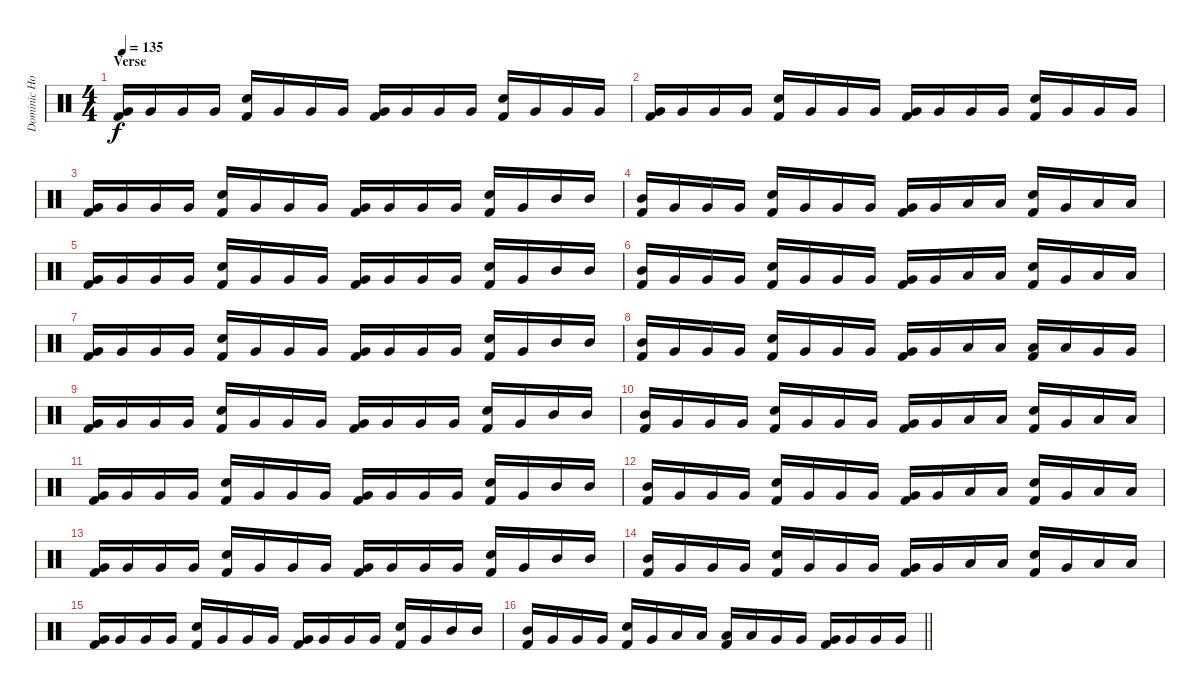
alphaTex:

\track ("Dominic Howard (Drums)" "Dominic Ho") {instrument percussion}
\staff {score}
\articulation defaults
\ts (4 4)
\section ("" "Verse")
\tempo 135
\clef neutral
\ks c
("Kick (hit) 2" "Very Low Tom (hit)").16{dy f} "Very Low Tom (hit)".16 "Very Low Tom (hit)".16 "Very Low Tom (hit)".16 ("Electric Snare (hit)" "Kick (hit) 2").16 "Very Low Tom (hit)".16 "Very Low Tom (hit)".16 "Very Low Tom (hit)".16 ("Kick (hit) 2" "Very Low Tom (hit)").16 "Very Low Tom (hit)".16 "Very Low Tom (hit)".16 "Very Low Tom (hit)".16 ("Electric Snare (hit)" "Kick (hit) 2").16 "Very Low Tom (hit)".16 "Very Low Tom (hit)".16 "Very Low Tom (hit)".16 |
("Kick (hit) 2" "Very Low Tom (hit)").16 "Very Low Tom (hit)".16 "Very Low Tom (hit)".16 "Very Low Tom (hit)".16 ("Electric Snare (hit)" "Kick (hit) 2").16 "Very Low Tom (hit)".16 "Very Low Tom (hit)".16 "Very Low Tom (hit)".16 ("Kick (hit) 2" "Very Low Tom (hit)").16 "Very Low Tom (hit)".16 "Very Low Tom (hit)".16 "Very Low Tom (hit)".16 ("Electric Snare (hit)" "Kick (hit) 2").16 "Very Low Tom (hit)".16 "Very Low Tom (hit)".16 "Very Low Tom (hit)".16 |
("Kick (hit) 2" "Very Low Tom (hit)").16 "Very Low Tom (hit)".16 "Very Low Tom (hit)".16 "Very Low Tom (hit)".16 ("Electric Snare (hit)" "Kick (hit) 2").16 "Very Low Tom (hit)".16 "Very Low Tom (hit)".16 "Very Low Tom (hit)".16 ("Kick (hit) 2" "Very Low Tom (hit)").16 "Very Low Tom (hit)".16 "Very Low Tom (hit)".16 "Very Low Tom (hit)".16 ("Electric Snare (hit)" "Kick (hit) 2").16 "Very Low Tom (hit)".16 "Mid Tom (hit)".16 "Mid Tom (hit)".16 |
("Kick (hit) 2" "Mid Tom (hit)").16 "Very Low Tom (hit)".16 "Very Low Tom (hit)".16 "Very Low Tom (hit)".16 ("Electric Snare (hit)" "Kick (hit) 2").16 "Very Low Tom (hit)".16 "Very Low Tom (hit)".16 "Very Low Tom (hit)".16 ("Kick (hit) 2" "Very Low Tom (hit)").16 "Very Low Tom (hit)".16 "Low Tom (hit)".16 "Low Tom (hit)".16 ("Electric Snare (hit)" "Kick (hit) 2").16 "Very Low Tom (hit)".16 "Low Tom (hit)".16 "Low Tom (hit)".16 |
("Kick (hit) 2" "Very Low Tom (hit)").16 "Very Low Tom (hit)".16 "Very Low Tom (hit)".16 "Very Low Tom (hit)".16 ("Electric Snare (hit)" "Kick (hit) 2").16 "Very Low Tom (hit)".16 "Very Low Tom (hit)".16 "Very Low Tom (hit)".16 ("Kick (hit) 2" "Very Low Tom (hit)").16 "Very Low Tom (hit)".16 "Very Low Tom (hit)".16 "Very Low Tom (hit)".16 ("Electric Snare (hit)" "Kick (hit) 2").16 "Very Low Tom (hit)".16 "Mid Tom (hit)".16 "Mid Tom (hit)".16 |
("Kick (hit) 2" "Mid Tom (hit)").16 "Very Low Tom (hit)".16 "Very Low Tom (hit)".16 "Very Low Tom (hit)".16 ("Electric Snare (hit)" "Kick (hit) 2").16 "Very Low Tom (hit)".16 "Very Low Tom (hit)".16 "Very Low Tom (hit)".16 ("Kick (hit) 2" "Very Low Tom (hit)").16 "Very Low Tom (hit)".16 "Low Tom (hit)".16 "Low Tom (hit)".16 ("Electric Snare (hit)" "Kick (hit) 2").16 "Very Low Tom (hit)".16 "Low Tom (hit)".16 "Low Tom (hit)".16 |
("Kick (hit) 2" "Very Low Tom (hit)").16 "Very Low Tom (hit)".16 "Very Low Tom (hit)".16 "Very Low Tom (hit)".16 ("Electric Snare (hit)" "Kick (hit) 2").16 "Very Low Tom (hit)".16 "Very Low Tom (hit)".16 "Very Low Tom (hit)".16 ("Kick (hit) 2" "Very Low Tom (hit)").16 "Very Low Tom (hit)".16 "Very Low Tom (hit)".16 "Very Low Tom (hit)".16 ("Electric Snare (hit)" "Kick (hit) 2").16 "Very Low Tom (hit)".16 "Mid Tom (hit)".16 "Mid Tom (hit)".16 |
("Kick (hit) 2" "Mid Tom (hit)").16 "Very Low Tom (hit)".16 "Very Low Tom (hit)".16 "Very Low Tom (hit)".16 ("Electric Snare (hit)" "Kick (hit) 2").16 "Very Low Tom (hit)".16 "Very Low Tom (hit)".16 "Very Low Tom (hit)".16 ("Kick (hit) 2" "Very Low Tom (hit)").16 "Very Low Tom (hit)".16 "Low Tom (hit)".16 "Low Tom (hit)".16 ("Kick (hit) 2" "Low Tom (hit)").16 "Low Tom (hit)".16 "Very Low Tom (hit)".16 "Very Low Tom (hit)".16 |
("Kick (hit) 2" "Very Low Tom (hit)").16 "Very Low Tom (hit)".16 "Very Low Tom (hit)".16 "Very Low Tom (hit)".16 ("Electric Snare (hit)" "Kick (hit) 2").16 "Very Low Tom (hit)".16 "Very Low Tom (hit)".16 "Very Low Tom (hit)".16 ("Kick (hit) 2" "Very Low Tom (hit)").16 "Very Low Tom (hit)".16 "Very Low Tom (hit)".16 "Very Low Tom (hit)".16 ("Electric Snare (hit)" "Kick (hit) 2").16 "Very Low Tom (hit)".16 "Mid Tom (hit)".16 "Mid Tom (hit)".16 |
("Kick (hit) 2" "Mid Tom (hit)").16 "Very Low Tom (hit)".16 "Very Low Tom (hit)".16 "Very Low Tom (hit)".16 ("Electric Snare (hit)" "Kick (hit) 2").16 "Very Low Tom (hit)".16 "Very Low Tom (hit)".16 "Very Low Tom (hit)".16 ("Kick (hit) 2" "Very Low Tom (hit)").16 "Very Low Tom (hit)".16 "Low Tom (hit)".16 "Low Tom (hit)".16 ("Electric Snare (hit)" "Kick (hit) 2").16 "Very Low Tom (hit)".16 "Low Tom (hit)".16 "Low Tom (hit)".16 |
("Kick (hit) 2" "Very Low Tom (hit)").16 "Very Low Tom (hit)".16 "Very Low Tom (hit)".16 "Very Low Tom (hit)".16 ("Electric Snare (hit)" "Kick (hit) 2").16 "Very Low Tom (hit)".16 "Very Low Tom (hit)".16 "Very Low Tom (hit)".16 ("Kick (hit) 2" "Very Low Tom (hit)").16 "Very Low Tom (hit)".16 "Very Low Tom (hit)".16 "Very Low Tom (hit)".16 ("Electric Snare (hit)" "Kick (hit) 2").16 "Very Low Tom (hit)".16 "Mid Tom (hit)".16 "Mid Tom (hit)".16 |
("Kick (hit) 2" "Mid Tom (hit)").16 "Very Low Tom (hit)".16 "Very Low Tom (hit)".16 "Very Low Tom (hit)".16 ("Electric Snare (hit)" "Kick (hit) 2").16 "Very Low Tom (hit)".16 "Very Low Tom (hit)".16 "Very Low Tom (hit)".16 ("Kick (hit) 2" "Very Low Tom (hit)").16 "Very Low Tom (hit)".16 "Low Tom (hit)".16 "Low Tom (hit)".16 ("Electric Snare (hit)" "Kick (hit) 2").16 "Very Low Tom (hit)".16 "Low Tom (hit)".16 "Low Tom (hit)".16 |
("Kick (hit) 2" "Very Low Tom (hit)").16 "Very Low Tom (hit)".16 "Very Low Tom (hit)".16 "Very Low Tom (hit)".16 ("Electric Snare (hit)" "Kick (hit) 2").16 "Very Low Tom (hit)".16 "Very Low Tom (hit)".16 "Very Low Tom (hit)".16 ("Kick (hit) 2" "Very Low Tom (hit)").16 "Very Low Tom (hit)".16 "Very Low Tom (hit)".16 "Very Low Tom (hit)".16 ("Electric Snare (hit)" "Kick (hit) 2").16 "Very Low Tom (hit)".16 "Mid Tom (hit)".16 "Mid Tom (hit)".16 |
("Kick (hit) 2" "Mid Tom (hit)").16 "Very Low Tom (hit)".16 "Very Low Tom (hit)".16 "Very Low Tom (hit)".16 ("Electric Snare (hit)" "Kick (hit) 2").16 "Very Low Tom (hit)".16 "Very Low Tom (hit)".16 "Very Low Tom (hit)".16 ("Kick (hit) 2" "Very Low Tom (hit)").16 "Very Low Tom (hit)".16 "Low Tom (hit)".16 "Low Tom (hit)".16 ("Electric Snare (hit)" "Kick (hit) 2").16 "Very Low Tom (hit)".16 "Low Tom (hit)".16 "Low Tom (hit)".16 |
("Kick (hit) 2" "Very Low Tom (hit)").16 "Very Low Tom (hit)".16 "Very Low Tom (hit)".16 "Very Low Tom (hit)".16 ("Electric Snare (hit)" "Kick (hit) 2").16 "Very Low Tom (hit)".16 "Very Low Tom (hit)".16 "Very Low Tom (hit)".16 ("Kick (hit) 2" "Very Low Tom (hit)").16 "Very Low Tom (hit)".16 "Very Low Tom (hit)".16 "Very Low Tom (hit)".16 ("Electric Snare (hit)" "Kick (hit) 2").16 "Very Low Tom (hit)".16 "Mid Tom (hit)".16 "Mid Tom (hit)".16 |
\barLineRight lightlight
("Kick (hit) 2" "Mid Tom (hit)").16 "Very Low Tom (hit)".16 "Very Low Tom (hit)".16 "Very Low Tom (hit)".16 ("Electric Snare (hit)" "Kick (hit) 2").16 "Very Low Tom (hit)".16 "Low Tom (hit)".16 "Low Tom (hit)".16 ("Kick (hit) 2" "Low Tom (hit)").16 "Low Tom (hit)".16 "Very Low Tom (hit)".16 "Very Low Tom (hit)".16 ("Kick (hit) 2" "Very Low Tom (hit)").16 "Very Low Tom (hit)".16 "Very Low Tom (hit)".16 "Very Low Tom (hit)".16
